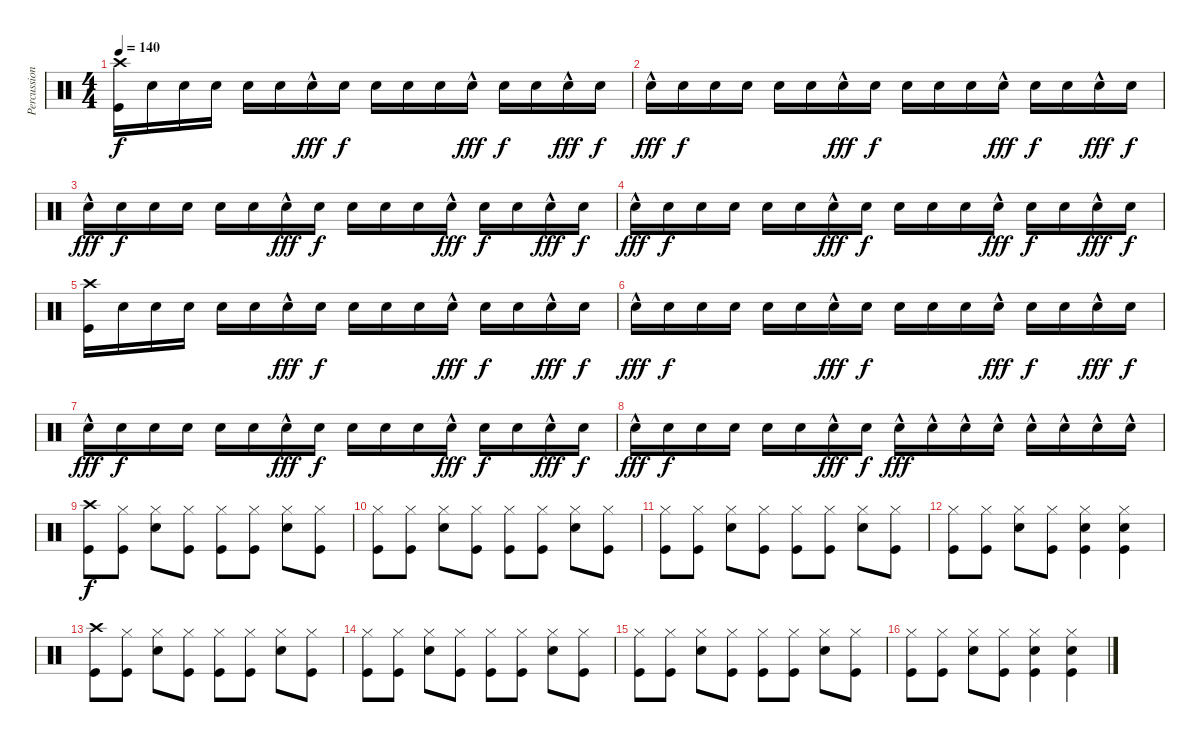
\track ("Percussioni" "Percussion") {instrument percussion}
\staff {score}
\articulation defaults
\ts (4 4)
\tempo 140
\clef neutral
\ks c
("Crash high (hit)" "Kick (hit)").16{dy f volume 7} "Snare (hit) 2".16 "Snare (hit) 2".16 "Snare (hit) 2".16 "Snare (hit) 2".16 "Snare (hit) 2".16 "Snare (hit) 2"{hac}.16{dy fff} "Snare (hit) 2".16{dy f} "Snare (hit) 2".16 "Snare (hit) 2".16 "Snare (hit) 2".16 "Snare (hit) 2"{hac}.16{dy fff} "Snare (hit) 2".16{dy f} "Snare (hit) 2".16 "Snare (hit) 2"{hac}.16{dy fff} "Snare (hit) 2".16{dy f} |
"Snare (hit) 2"{hac}.16{dy fff volume 7} "Snare (hit) 2".16{dy f} "Snare (hit) 2".16 "Snare (hit) 2".16 "Snare (hit) 2".16 "Snare (hit) 2".16 "Snare (hit) 2"{hac}.16{dy fff} "Snare (hit) 2".16{dy f} "Snare (hit) 2".16 "Snare (hit) 2".16 "Snare (hit) 2".16 "Snare (hit) 2"{hac}.16{dy fff} "Snare (hit) 2".16{dy f} "Snare (hit) 2".16 "Snare (hit) 2"{hac}.16{dy fff} "Snare (hit) 2".16{dy f} |
"Snare (hit) 2"{hac}.16{dy fff volume 7} "Snare (hit) 2".16{dy f} "Snare (hit) 2".16 "Snare (hit) 2".16 "Snare (hit) 2".16 "Snare (hit) 2".16 "Snare (hit) 2"{hac}.16{dy fff} "Snare (hit) 2".16{dy f} "Snare (hit) 2".16 "Snare (hit) 2".16 "Snare (hit) 2".16 "Snare (hit) 2"{hac}.16{dy fff} "Snare (hit) 2".16{dy f} "Snare (hit) 2".16 "Snare (hit) 2"{hac}.16{dy fff} "Snare (hit) 2".16{dy f} |
"Snare (hit) 2"{hac}.16{dy fff volume 7} "Snare (hit) 2".16{dy f} "Snare (hit) 2".16 "Snare (hit) 2".16 "Snare (hit) 2".16 "Snare (hit) 2".16 "Snare (hit) 2"{hac}.16{dy fff} "Snare (hit) 2".16{dy f} "Snare (hit) 2".16 "Snare (hit) 2".16 "Snare (hit) 2".16 "Snare (hit) 2"{hac}.16{dy fff} "Snare (hit) 2".16{dy f} "Snare (hit) 2".16 "Snare (hit) 2"{hac}.16{dy fff} "Snare (hit) 2".16{dy f} |
("Crash high (hit)" "Kick (hit)").16{volume 7} "Snare (hit) 2".16 "Snare (hit) 2".16 "Snare (hit) 2".16 "Snare (hit) 2".16 "Snare (hit) 2".16 "Snare (hit) 2"{hac}.16{dy fff} "Snare (hit) 2".16{dy f} "Snare (hit) 2".16 "Snare (hit) 2".16 "Snare (hit) 2".16 "Snare (hit) 2"{hac}.16{dy fff} "Snare (hit) 2".16{dy f} "Snare (hit) 2".16 "Snare (hit) 2"{hac}.16{dy fff} "Snare (hit) 2".16{dy f} |
"Snare (hit) 2"{hac}.16{dy fff volume 7} "Snare (hit) 2".16{dy f} "Snare (hit) 2".16 "Snare (hit) 2".16 "Snare (hit) 2".16 "Snare (hit) 2".16 "Snare (hit) 2"{hac}.16{dy fff} "Snare (hit) 2".16{dy f} "Snare (hit) 2".16 "Snare (hit) 2".16 "Snare (hit) 2".16 "Snare (hit) 2"{hac}.16{dy fff} "Snare (hit) 2".16{dy f} "Snare (hit) 2".16 "Snare (hit) 2"{hac}.16{dy fff} "Snare (hit) 2".16{dy f} |
"Snare (hit) 2"{hac}.16{dy fff volume 7} "Snare (hit) 2".16{dy f} "Snare (hit) 2".16 "Snare (hit) 2".16 "Snare (hit) 2".16 "Snare (hit) 2".16 "Snare (hit) 2"{hac}.16{dy fff} "Snare (hit) 2".16{dy f} "Snare (hit) 2".16 "Snare (hit) 2".16 "Snare (hit) 2".16 "Snare (hit) 2"{hac}.16{dy fff} "Snare (hit) 2".16{dy f} "Snare (hit) 2".16 "Snare (hit) 2"{hac}.16{dy fff} "Snare (hit) 2".16{dy f} |
"Snare (hit) 2"{hac}.16{dy fff volume 7} "Snare (hit) 2".16{dy f} "Snare (hit) 2".16 "Snare (hit) 2".16 "Snare (hit) 2".16 "Snare (hit) 2".16 "Snare (hit) 2"{hac}.16{dy fff} "Snare (hit) 2".16{dy f} "Snare (hit) 2"{hac}.16{dy fff} "Snare (hit) 2"{hac}.16 "Snare (hit) 2"{hac}.16 "Snare (hit) 2"{hac}.16 "Snare (hit) 2"{hac}.16 "Snare (hit) 2"{hac}.16 "Snare (hit) 2"{hac}.16 "Snare (hit) 2"{hac}.16 |
("Crash high (hit)" "Kick (hit)").8{dy f} ("Hi-Hat (closed)" "Kick (hit)").8 ("Hi-Hat (closed)" "Snare (hit) 2").8 ("Hi-Hat (closed)" "Kick (hit)").8 ("Hi-Hat (closed)" "Kick (hit)").8 ("Hi-Hat (closed)" "Kick (hit)").8 ("Hi-Hat (closed)" "Snare (hit) 2").8 ("Hi-Hat (closed)" "Kick (hit)").8 |
("Hi-Hat (closed)" "Kick (hit)").8 ("Hi-Hat (closed)" "Kick (hit)").8 ("Hi-Hat (closed)" "Snare (hit) 2").8 ("Hi-Hat (closed)" "Kick (hit)").8 ("Hi-Hat (closed)" "Kick (hit)").8 ("Hi-Hat (closed)" "Kick (hit)").8 ("Hi-Hat (closed)" "Snare (hit) 2").8 ("Hi-Hat (closed)" "Kick (hit)").8 |
("Hi-Hat (closed)" "Kick (hit)").8 ("Hi-Hat (closed)" "Kick (hit)").8 ("Hi-Hat (closed)" "Snare (hit) 2").8 ("Hi-Hat (closed)" "Kick (hit)").8 ("Hi-Hat (closed)" "Kick (hit)").8 ("Hi-Hat (closed)" "Kick (hit)").8 ("Hi-Hat (closed)" "Snare (hit) 2").8 ("Hi-Hat (closed)" "Kick (hit)").8 |
("Hi-Hat (closed)" "Kick (hit)").8 ("Hi-Hat (closed)" "Kick (hit)").8 ("Hi-Hat (closed)" "Snare (hit) 2").8 ("Hi-Hat (closed)" "Kick (hit)").8 ("Hi-Hat (closed)" "Snare (hit) 2" "Kick (hit)").4 ("Hi-Hat (closed)" "Snare (hit) 2" "Kick (hit)").4 |
("Crash high (hit)" "Kick (hit)").8 ("Hi-Hat (closed)" "Kick (hit)").8 ("Hi-Hat (closed)" "Snare (hit) 2").8 ("Hi-Hat (closed)" "Kick (hit)").8 ("Hi-Hat (closed)" "Kick (hit)").8 ("Hi-Hat (closed)" "Kick (hit)").8 ("Hi-Hat (closed)" "Snare (hit) 2").8 ("Hi-Hat (closed)" "Kick (hit)").8 |
("Hi-Hat (closed)" "Kick (hit)").8 ("Hi-Hat (closed)" "Kick (hit)").8 ("Hi-Hat (closed)" "Snare (hit) 2").8 ("Hi-Hat (closed)" "Kick (hit)").8 ("Hi-Hat (closed)" "Kick (hit)").8 ("Hi-Hat (closed)" "Kick (hit)").8 ("Hi-Hat (closed)" "Snare (hit) 2").8 ("Hi-Hat (closed)" "Kick (hit)").8 |
("Hi-Hat (closed)" "Kick (hit)").8 ("Hi-Hat (closed)" "Kick (hit)").8 ("Hi-Hat (closed)" "Snare (hit) 2").8 ("Hi-Hat (closed)" "Kick (hit)").8 ("Hi-Hat (closed)" "Kick (hit)").8 ("Hi-Hat (closed)" "Kick (hit)").8 ("Hi-Hat (closed)" "Snare (hit) 2").8 ("Hi-Hat (closed)" "Kick (hit)").8 |
("Hi-Hat (closed)" "Kick (hit)").8 ("Hi-Hat (closed)" "Kick (hit)").8 ("Hi-Hat (closed)" "Snare (hit) 2").8 ("Hi-Hat (closed)" "Kick (hit)").8 ("Hi-Hat (closed)" "Snare (hit) 2" "Kick (hit)").4 ("Hi-Hat (closed)" "Snare (hit) 2" "Kick (hit)").4
